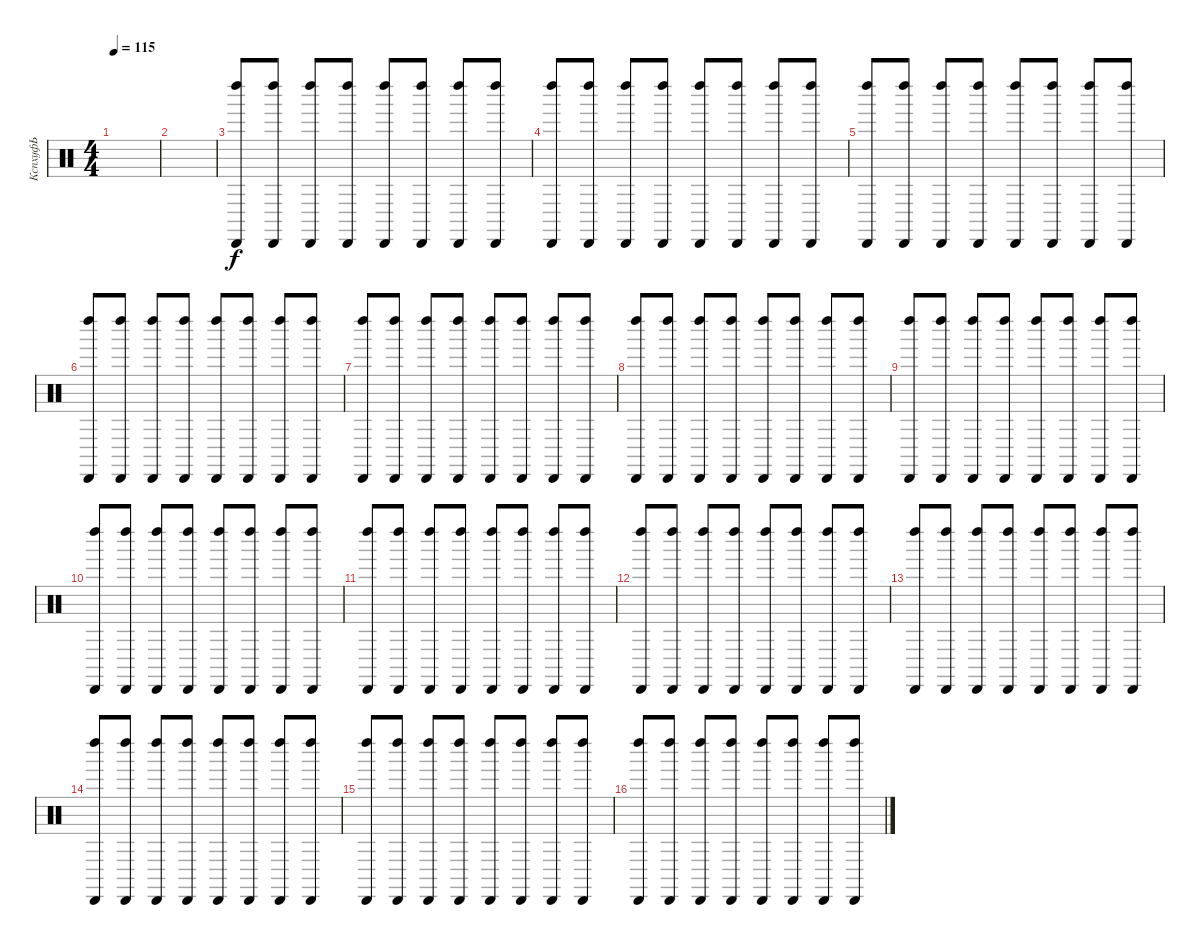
\track ("КспхуфЬ" "КспхуфЬ") {instrument percussion}
\staff {score}
\articulation defaults
\ts (4 4)
\tempo 115
\clef neutral
\ks c
|
|
("Cabasa (hit)" "Left Maraca (hit)").8 ("Cabasa (hit)" "Left Maraca (hit)").8 ("Cabasa (hit)" "Left Maraca (hit)").8 ("Cabasa (hit)" "Left Maraca (hit)").8 ("Cabasa (hit)" "Left Maraca (hit)").8 ("Cabasa (hit)" "Left Maraca (hit)").8 ("Cabasa (hit)" "Left Maraca (hit)").8 ("Cabasa (hit)" "Left Maraca (hit)").8 |
("Cabasa (hit)" "Left Maraca (hit)").8 ("Cabasa (hit)" "Left Maraca (hit)").8 ("Cabasa (hit)" "Left Maraca (hit)").8 ("Cabasa (hit)" "Left Maraca (hit)").8 ("Cabasa (hit)" "Left Maraca (hit)").8 ("Cabasa (hit)" "Left Maraca (hit)").8 ("Cabasa (hit)" "Left Maraca (hit)").8 ("Cabasa (hit)" "Left Maraca (hit)").8 |
("Cabasa (hit)" "Left Maraca (hit)").8 ("Cabasa (hit)" "Left Maraca (hit)").8 ("Cabasa (hit)" "Left Maraca (hit)").8 ("Cabasa (hit)" "Left Maraca (hit)").8 ("Cabasa (hit)" "Left Maraca (hit)").8 ("Cabasa (hit)" "Left Maraca (hit)").8 ("Cabasa (hit)" "Left Maraca (hit)").8 ("Cabasa (hit)" "Left Maraca (hit)").8 |
("Cabasa (hit)" "Left Maraca (hit)").8 ("Cabasa (hit)" "Left Maraca (hit)").8 ("Cabasa (hit)" "Left Maraca (hit)").8 ("Cabasa (hit)" "Left Maraca (hit)").8 ("Cabasa (hit)" "Left Maraca (hit)").8 ("Cabasa (hit)" "Left Maraca (hit)").8 ("Cabasa (hit)" "Left Maraca (hit)").8 ("Cabasa (hit)" "Left Maraca (hit)").8 |
("Cabasa (hit)" "Left Maraca (hit)").8 ("Cabasa (hit)" "Left Maraca (hit)").8 ("Cabasa (hit)" "Left Maraca (hit)").8 ("Cabasa (hit)" "Left Maraca (hit)").8 ("Cabasa (hit)" "Left Maraca (hit)").8 ("Cabasa (hit)" "Left Maraca (hit)").8 ("Cabasa (hit)" "Left Maraca (hit)").8 ("Cabasa (hit)" "Left Maraca (hit)").8 |
("Cabasa (hit)" "Left Maraca (hit)").8 ("Cabasa (hit)" "Left Maraca (hit)").8 ("Cabasa (hit)" "Left Maraca (hit)").8 ("Cabasa (hit)" "Left Maraca (hit)").8 ("Cabasa (hit)" "Left Maraca (hit)").8 ("Cabasa (hit)" "Left Maraca (hit)").8 ("Cabasa (hit)" "Left Maraca (hit)").8 ("Cabasa (hit)" "Left Maraca (hit)").8 |
("Cabasa (hit)" "Left Maraca (hit)").8 ("Cabasa (hit)" "Left Maraca (hit)").8 ("Cabasa (hit)" "Left Maraca (hit)").8 ("Cabasa (hit)" "Left Maraca (hit)").8 ("Cabasa (hit)" "Left Maraca (hit)").8 ("Cabasa (hit)" "Left Maraca (hit)").8 ("Cabasa (hit)" "Left Maraca (hit)").8 ("Cabasa (hit)" "Left Maraca (hit)").8 |
("Cabasa (hit)" "Left Maraca (hit)").8 ("Cabasa (hit)" "Left Maraca (hit)").8 ("Cabasa (hit)" "Left Maraca (hit)").8 ("Cabasa (hit)" "Left Maraca (hit)").8 ("Cabasa (hit)" "Left Maraca (hit)").8 ("Cabasa (hit)" "Left Maraca (hit)").8 ("Cabasa (hit)" "Left Maraca (hit)").8 ("Cabasa (hit)" "Left Maraca (hit)").8 |
("Cabasa (hit)" "Left Maraca (hit)").8 ("Cabasa (hit)" "Left Maraca (hit)").8 ("Cabasa (hit)" "Left Maraca (hit)").8 ("Cabasa (hit)" "Left Maraca (hit)").8 ("Cabasa (hit)" "Left Maraca (hit)").8 ("Cabasa (hit)" "Left Maraca (hit)").8 ("Cabasa (hit)" "Left Maraca (hit)").8 ("Cabasa (hit)" "Left Maraca (hit)").8 |
("Cabasa (hit)" "Left Maraca (hit)").8 ("Cabasa (hit)" "Left Maraca (hit)").8 ("Cabasa (hit)" "Left Maraca (hit)").8 ("Cabasa (hit)" "Left Maraca (hit)").8 ("Cabasa (hit)" "Left Maraca (hit)").8 ("Cabasa (hit)" "Left Maraca (hit)").8 ("Cabasa (hit)" "Left Maraca (hit)").8 ("Cabasa (hit)" "Left Maraca (hit)").8 |
("Cabasa (hit)" "Left Maraca (hit)").8 ("Cabasa (hit)" "Left Maraca (hit)").8 ("Cabasa (hit)" "Left Maraca (hit)").8 ("Cabasa (hit)" "Left Maraca (hit)").8 ("Cabasa (hit)" "Left Maraca (hit)").8 ("Cabasa (hit)" "Left Maraca (hit)").8 ("Cabasa (hit)" "Left Maraca (hit)").8 ("Cabasa (hit)" "Left Maraca (hit)").8 |
("Cabasa (hit)" "Left Maraca (hit)").8 ("Cabasa (hit)" "Left Maraca (hit)").8 ("Cabasa (hit)" "Left Maraca (hit)").8 ("Cabasa (hit)" "Left Maraca (hit)").8 ("Cabasa (hit)" "Left Maraca (hit)").8 ("Cabasa (hit)" "Left Maraca (hit)").8 ("Cabasa (hit)" "Left Maraca (hit)").8 ("Cabasa (hit)" "Left Maraca (hit)").8 |
("Cabasa (hit)" "Left Maraca (hit)").8 ("Cabasa (hit)" "Left Maraca (hit)").8 ("Cabasa (hit)" "Left Maraca (hit)").8 ("Cabasa (hit)" "Left Maraca (hit)").8 ("Cabasa (hit)" "Left Maraca (hit)").8 ("Cabasa (hit)" "Left Maraca (hit)").8 ("Cabasa (hit)" "Left Maraca (hit)").8 ("Cabasa (hit)" "Left Maraca (hit)").8 |
("Cabasa (hit)" "Left Maraca (hit)").8 ("Cabasa (hit)" "Left Maraca (hit)").8 ("Cabasa (hit)" "Left Maraca (hit)").8 ("Cabasa (hit)" "Left Maraca (hit)").8 ("Cabasa (hit)" "Left Maraca (hit)").8 ("Cabasa (hit)" "Left Maraca (hit)").8 ("Cabasa (hit)" "Left Maraca (hit)").8 ("Cabasa (hit)" "Left Maraca (hit)").8
